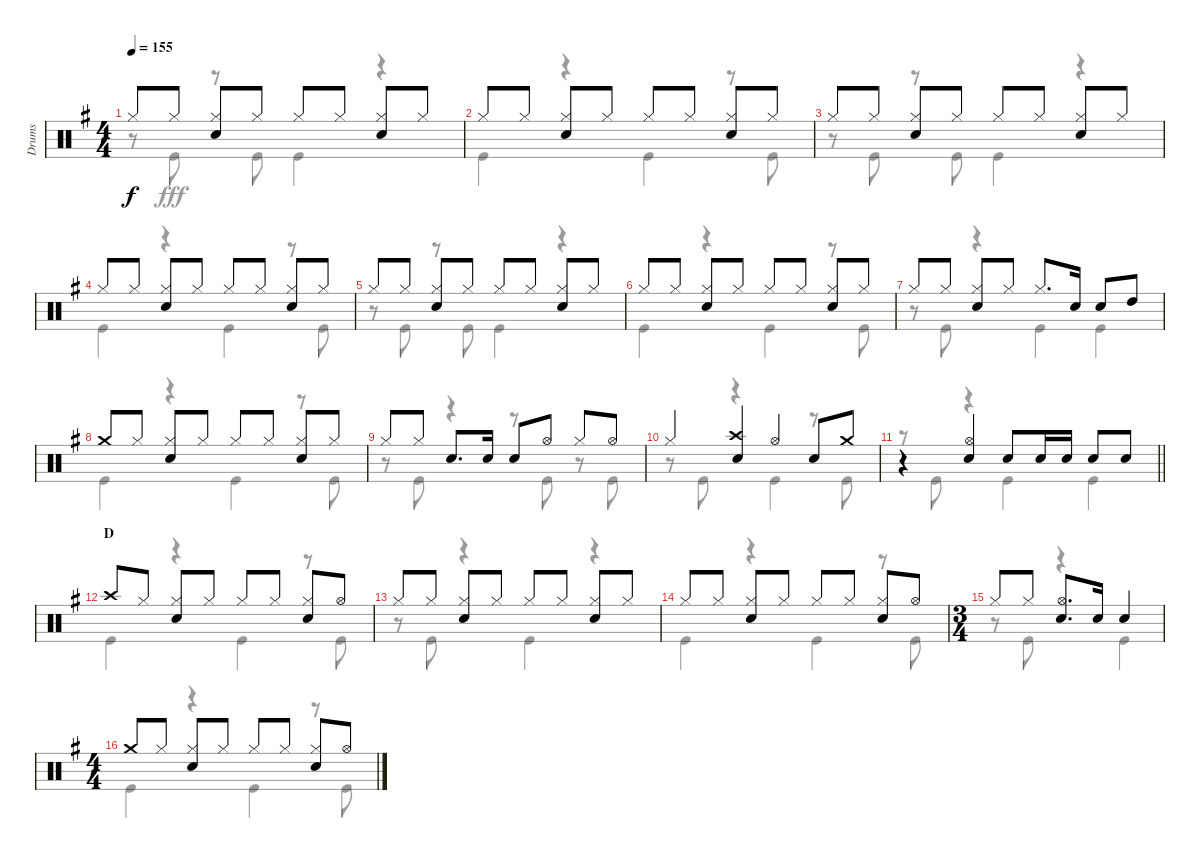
\track ("Drums" "Drums") {instrument percussion}
\staff {score}
\articulation defaults
\voice
\ts (4 4)
\tempo 155
\clef neutral
\ks g "Hi-Hat (closed)".8{dy f} "Hi-Hat (closed)".8
("Hi-Hat (closed)" "Snare (hit) 2").8 "Hi-Hat (closed)".8 "Hi-Hat (closed)".8 "Hi-Hat (closed)".8 ("Hi-Hat (closed)" "Snare (hit) 2").8 "Hi-Hat (closed)".8 |
"Hi-Hat (closed)".8 "Hi-Hat (closed)".8 ("Hi-Hat (closed)" "Snare (hit) 2").8 "Hi-Hat (closed)".8 "Hi-Hat (closed)".8 "Hi-Hat (closed)".8 ("Hi-Hat (closed)" "Snare (hit) 2").8 "Hi-Hat (closed)".8 |
"Hi-Hat (closed)".8 "Hi-Hat (closed)".8 ("Hi-Hat (closed)" "Snare (hit) 2").8 "Hi-Hat (closed)".8 "Hi-Hat (closed)".8 "Hi-Hat (closed)".8 ("Hi-Hat (closed)" "Snare (hit) 2").8 "Hi-Hat (closed)".8 |
"Hi-Hat (closed)".8 "Hi-Hat (closed)".8 ("Hi-Hat (closed)" "Snare (hit) 2").8 "Hi-Hat (closed)".8 "Hi-Hat (closed)".8 "Hi-Hat (closed)".8 ("Hi-Hat (closed)" "Snare (hit) 2").8 "Hi-Hat (closed)".8 |
"Hi-Hat (closed)".8 "Hi-Hat (closed)".8 ("Hi-Hat (closed)" "Snare (hit) 2").8 "Hi-Hat (closed)".8 "Hi-Hat (closed)".8 "Hi-Hat (closed)".8 ("Hi-Hat (closed)" "Snare (hit) 2").8 "Hi-Hat (closed)".8 |
"Hi-Hat (closed)".8 "Hi-Hat (closed)".8 ("Hi-Hat (closed)" "Snare (hit) 2").8 "Hi-Hat (closed)".8 "Hi-Hat (closed)".8 "Hi-Hat (closed)".8 ("Hi-Hat (closed)" "Snare (hit) 2").8 "Hi-Hat (closed)".8 |
"Hi-Hat (closed)".8 "Hi-Hat (closed)".8 ("Hi-Hat (closed)" "Snare (hit) 2").8 "Hi-Hat (closed)".8 "Hi-Hat (closed)".8{d} "Snare (hit) 2".16 "Snare (hit) 2".8 "High Tom (hit)".8 |
"Crash medium (hit)".8 "Hi-Hat (closed)".8 ("Hi-Hat (closed)" "Snare (hit) 2").8 "Hi-Hat (closed)".8 "Hi-Hat (closed)".8 "Hi-Hat (closed)".8 ("Hi-Hat (closed)" "Snare (hit) 2").8 "Hi-Hat (closed)".8 |
"Hi-Hat (closed)".8 "Hi-Hat (closed)".8 "Snare (hit) 2".8{d} "Snare (hit) 2".16 "Snare (hit) 2".8 "Hi-Hat (open)".8 "Hi-Hat (closed)".8 "Hi-Hat (open)".8 |
"Hi-Hat (closed)".4 ("Crash high (hit)" "Snare (hit) 2").4 "Hi-Hat (open)".4 "Snare (hit) 2".8 "Crash medium (hit)".8 |
\barLineRight lightlight
r.4 ("Hi-Hat (open)" "Snare (hit) 2").4 "Snare (hit) 2".8 "Snare (hit) 2".16 "Snare (hit) 2".16 "Snare (hit) 2".8 "Snare (hit) 2".8 |
\section ("" "D")
"Crash high (hit)".8 "Hi-Hat (closed)".8 ("Hi-Hat (closed)" "Snare (hit) 2").8 "Hi-Hat (closed)".8 "Hi-Hat (closed)".8 "Hi-Hat (closed)".8 ("Hi-Hat (closed)" "Snare (hit) 2").8 "Hi-Hat (open)".8 |
"Hi-Hat (closed)".8 "Hi-Hat (closed)".8 ("Hi-Hat (closed)" "Snare (hit) 2").8 "Hi-Hat (closed)".8 "Hi-Hat (closed)".8 "Hi-Hat (closed)".8 ("Hi-Hat (closed)" "Snare (hit) 2").8 "Hi-Hat (closed)".8 |
"Hi-Hat (closed)".8 "Hi-Hat (closed)".8 ("Hi-Hat (closed)" "Snare (hit) 2").8 "Hi-Hat (closed)".8 "Hi-Hat (closed)".8 "Hi-Hat (closed)".8 ("Hi-Hat (closed)" "Snare (hit) 2").8 "Hi-Hat (open)".8 |
\ts (3 4)
"Hi-Hat (closed)".8 "Hi-Hat (closed)".8 ("Hi-Hat (open)" "Snare (hit) 2").8{d} "Snare (hit) 2".16 "Snare (hit) 2".4 |
\ts (4 4)
"Crash medium (hit)".8 "Hi-Hat (closed)".8 ("Hi-Hat (closed)" "Snare (hit) 2").8 "Hi-Hat (closed)".8 "Hi-Hat (closed)".8 "Hi-Hat (closed)".8 ("Hi-Hat (closed)" "Snare (hit) 2").8 "Hi-Hat (open)".8
\voice
\clef neutral
\ottava regular
\simile none
\ks g
r.8{dy fff} "Kick (hit)".8 r.8 "Kick (hit)".8 "Kick (hit)".4 r.4 |
"Kick (hit)".4 r.4 "Kick (hit)".4 r.8 "Kick (hit)".8 |
r.8 "Kick (hit)".8 r.8 "Kick (hit)".8 "Kick (hit)".4 r.4 |
"Kick (hit)".4 r.4 "Kick (hit)".4 r.8 "Kick (hit)".8 |
r.8 "Kick (hit)".8 r.8 "Kick (hit)".8 "Kick (hit)".4 r.4 |
"Kick (hit)".4 r.4 "Kick (hit)".4 r.8 "Kick (hit)".8 |
r.8 "Kick (hit)".8 r.4 "Kick (hit)".4 "Kick (hit)".4 |
"Kick (hit)".4 r.4 "Kick (hit)".4 r.8 "Kick (hit)".8 |
r.8 "Kick (hit)".8 r.4 r.8 "Kick (hit)".8 r.8 "Kick (hit)".8 |
r.8 "Kick (hit)".8 r.4 "Kick (hit)".4 r.8 "Kick (hit)".8 |
\barLineRight lightlight
r.8 "Kick (hit)".8 r.4 "Kick (hit)".4 "Kick (hit)".4 |
"Kick (hit)".4 r.4 "Kick (hit)".4 r.8 "Kick (hit)".8 |
r.8 "Kick (hit)".8 r.4 "Kick (hit)".4 r.4 |
"Kick (hit)".4 r.4 "Kick (hit)".4 r.8 "Kick (hit)".8 |
r.8 "Kick (hit)".8 r.4 "Kick (hit)".4 |
"Kick (hit)".4 r.4 "Kick (hit)".4 r.8 "Kick (hit)".8
